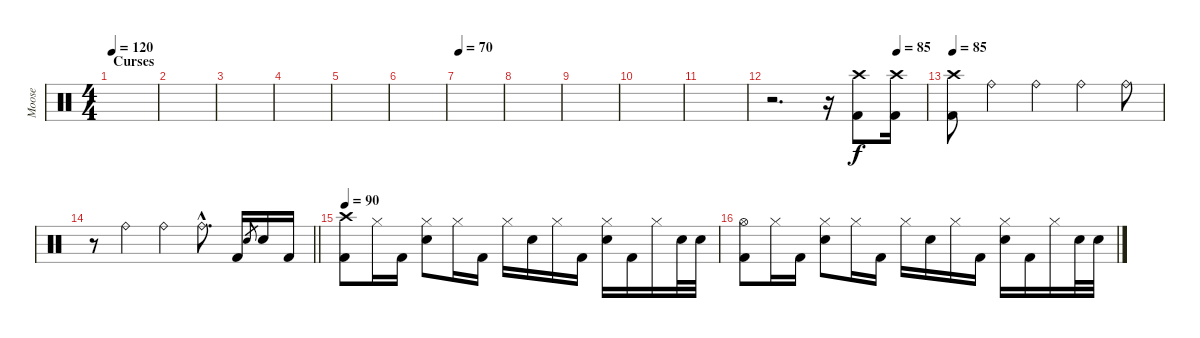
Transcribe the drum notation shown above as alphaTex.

\track ("Moose" "Moose") {instrument percussion}
\staff {score}
\articulation defaults
\ts (4 4)
\section ("" "Curses")
\tempo 120
\tempo 68
\tempo 120
\clef neutral
\ks c
|
|
|
|
|
|
\tempo 70
|
|
|
|
|
\tempo (85 0.8125)
r.2{d} r.16 ("Crash high (hit)" "Kick (hit) 2").8 ("Crash high (hit)" "Kick (hit) 2").16 |
\tempo 85
("Crash high (hit)" "Kick (hit) 2").8 "Ride (bell)".4 "Ride (bell)".4 "Ride (bell)".4 "Ride (bell)".8 |
\barLineRight lightlight
r.8 "Ride (bell)".4 "Ride (bell)".4 "Ride (bell)"{hac}.8{d} "Kick (hit) 2".16 "Snare (hit) 2".8{gr} "Snare (hit) 2".16 "Kick (hit) 2".16 |
\tempo 90
("Crash high (hit)" "Kick (hit) 2").8 "Hi-Hat (closed)".16 "Kick (hit) 2".16 ("Hi-Hat (closed)" "Snare (hit) 2").8 "Hi-Hat (closed)".16 "Kick (hit) 2".16 "Hi-Hat (closed)".16 "Snare (hit) 2".16 "Hi-Hat (closed)".16 "Kick (hit) 2".16 ("Hi-Hat (closed)" "Snare (hit) 2").16 "Kick (hit) 2".16 "Hi-Hat (closed)".16 "Snare (hit) 2".32 "Snare (hit) 2".32 |
("Hi-Hat (open)" "Kick (hit) 2").8 "Hi-Hat (closed)".16 "Kick (hit) 2".16 ("Hi-Hat (closed)" "Snare (hit) 2").8 "Hi-Hat (closed)".16 "Kick (hit) 2".16 "Hi-Hat (closed)".16 "Snare (hit) 2".16 "Hi-Hat (closed)".16 "Kick (hit) 2".16 ("Hi-Hat (closed)" "Snare (hit) 2").16 "Kick (hit) 2".16 "Hi-Hat (closed)".16 "Snare (hit) 2".32 "Snare (hit) 2".32
